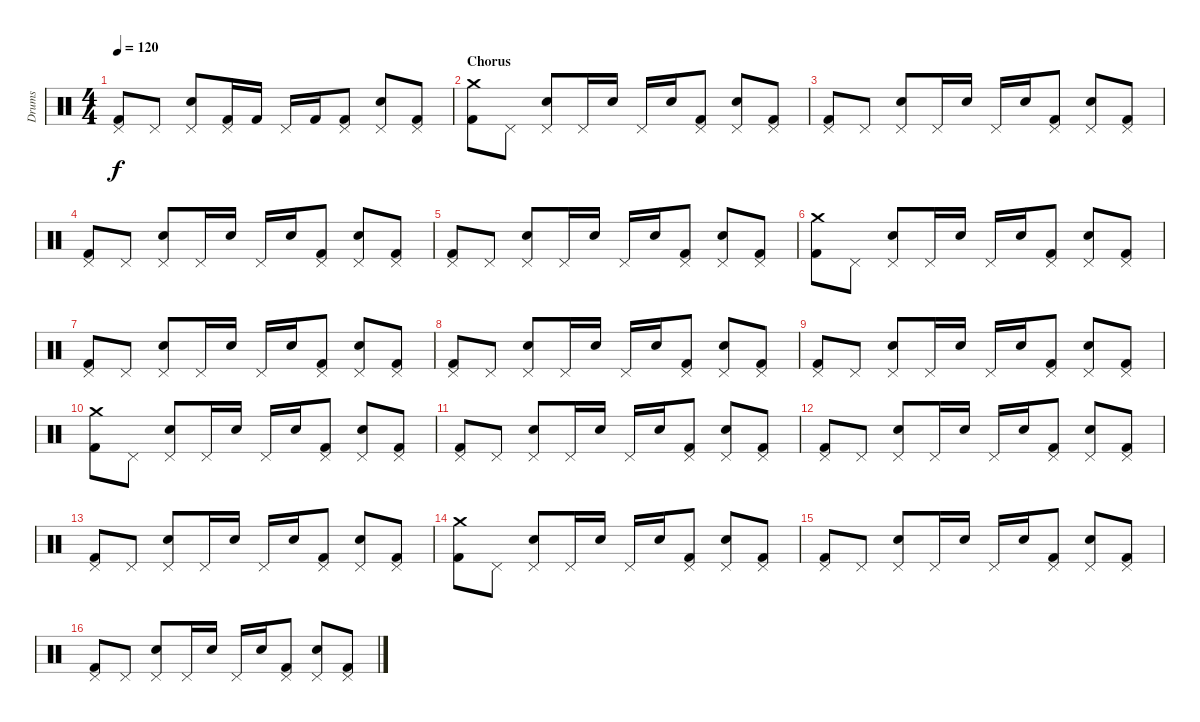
\track ("Drums" "Drums") {instrument percussion}
\staff {score}
\articulation defaults
\ts (4 4)
\tempo 120
\clef neutral
\ks c
("Pedal Hi-Hat (hit)" "Kick (hit) 2").8{dy f} "Pedal Hi-Hat (hit)".8 ("Pedal Hi-Hat (hit)" "Electric Snare (hit)").8 ("Pedal Hi-Hat (hit)" "Kick (hit) 2").16 "Kick (hit) 2".16 "Pedal Hi-Hat (hit)".16 "Kick (hit) 2".16 ("Pedal Hi-Hat (hit)" "Kick (hit) 2").8 ("Pedal Hi-Hat (hit)" "Electric Snare (hit)").8 ("Pedal Hi-Hat (hit)" "Kick (hit) 2").8 |
\section ("" "Chorus")
("Crash medium (hit)" "Kick (hit) 2").8 "Pedal Hi-Hat (hit)".8 ("Pedal Hi-Hat (hit)" "Electric Snare (hit)").8 "Pedal Hi-Hat (hit)".16 "Electric Snare (hit)".16 "Pedal Hi-Hat (hit)".16 "Electric Snare (hit)".16 ("Pedal Hi-Hat (hit)" "Kick (hit) 2").8 ("Pedal Hi-Hat (hit)" "Electric Snare (hit)").8 ("Pedal Hi-Hat (hit)" "Kick (hit) 2").8 |
("Pedal Hi-Hat (hit)" "Kick (hit) 2").8 "Pedal Hi-Hat (hit)".8 ("Pedal Hi-Hat (hit)" "Electric Snare (hit)").8 "Pedal Hi-Hat (hit)".16 "Electric Snare (hit)".16 "Pedal Hi-Hat (hit)".16 "Electric Snare (hit)".16 ("Pedal Hi-Hat (hit)" "Kick (hit) 2").8 ("Pedal Hi-Hat (hit)" "Electric Snare (hit)").8 ("Pedal Hi-Hat (hit)" "Kick (hit) 2").8 |
("Pedal Hi-Hat (hit)" "Kick (hit) 2").8 "Pedal Hi-Hat (hit)".8 ("Pedal Hi-Hat (hit)" "Electric Snare (hit)").8 "Pedal Hi-Hat (hit)".16 "Electric Snare (hit)".16 "Pedal Hi-Hat (hit)".16 "Electric Snare (hit)".16 ("Pedal Hi-Hat (hit)" "Kick (hit) 2").8 ("Pedal Hi-Hat (hit)" "Electric Snare (hit)").8 ("Pedal Hi-Hat (hit)" "Kick (hit) 2").8 |
("Pedal Hi-Hat (hit)" "Kick (hit) 2").8 "Pedal Hi-Hat (hit)".8 ("Pedal Hi-Hat (hit)" "Electric Snare (hit)").8 "Pedal Hi-Hat (hit)".16 "Electric Snare (hit)".16 "Pedal Hi-Hat (hit)".16 "Electric Snare (hit)".16 ("Pedal Hi-Hat (hit)" "Kick (hit) 2").8 ("Pedal Hi-Hat (hit)" "Electric Snare (hit)").8 ("Pedal Hi-Hat (hit)" "Kick (hit) 2").8 |
("Crash medium (hit)" "Kick (hit) 2").8 "Pedal Hi-Hat (hit)".8 ("Pedal Hi-Hat (hit)" "Electric Snare (hit)").8 "Pedal Hi-Hat (hit)".16 "Electric Snare (hit)".16 "Pedal Hi-Hat (hit)".16 "Electric Snare (hit)".16 ("Pedal Hi-Hat (hit)" "Kick (hit) 2").8 ("Pedal Hi-Hat (hit)" "Electric Snare (hit)").8 ("Pedal Hi-Hat (hit)" "Kick (hit) 2").8 |
("Pedal Hi-Hat (hit)" "Kick (hit) 2").8 "Pedal Hi-Hat (hit)".8 ("Pedal Hi-Hat (hit)" "Electric Snare (hit)").8 "Pedal Hi-Hat (hit)".16 "Electric Snare (hit)".16 "Pedal Hi-Hat (hit)".16 "Electric Snare (hit)".16 ("Pedal Hi-Hat (hit)" "Kick (hit) 2").8 ("Pedal Hi-Hat (hit)" "Electric Snare (hit)").8 ("Pedal Hi-Hat (hit)" "Kick (hit) 2").8 |
("Pedal Hi-Hat (hit)" "Kick (hit) 2").8 "Pedal Hi-Hat (hit)".8 ("Pedal Hi-Hat (hit)" "Electric Snare (hit)").8 "Pedal Hi-Hat (hit)".16 "Electric Snare (hit)".16 "Pedal Hi-Hat (hit)".16 "Electric Snare (hit)".16 ("Pedal Hi-Hat (hit)" "Kick (hit) 2").8 ("Pedal Hi-Hat (hit)" "Electric Snare (hit)").8 ("Pedal Hi-Hat (hit)" "Kick (hit) 2").8 |
("Pedal Hi-Hat (hit)" "Kick (hit) 2").8 "Pedal Hi-Hat (hit)".8 ("Pedal Hi-Hat (hit)" "Electric Snare (hit)").8 "Pedal Hi-Hat (hit)".16 "Electric Snare (hit)".16 "Pedal Hi-Hat (hit)".16 "Electric Snare (hit)".16 ("Pedal Hi-Hat (hit)" "Kick (hit) 2").8 ("Pedal Hi-Hat (hit)" "Electric Snare (hit)").8 ("Pedal Hi-Hat (hit)" "Kick (hit) 2").8 |
("Crash medium (hit)" "Kick (hit) 2").8 "Pedal Hi-Hat (hit)".8 ("Pedal Hi-Hat (hit)" "Electric Snare (hit)").8 "Pedal Hi-Hat (hit)".16 "Electric Snare (hit)".16 "Pedal Hi-Hat (hit)".16 "Electric Snare (hit)".16 ("Pedal Hi-Hat (hit)" "Kick (hit) 2").8 ("Pedal Hi-Hat (hit)" "Electric Snare (hit)").8 ("Pedal Hi-Hat (hit)" "Kick (hit) 2").8 |
("Pedal Hi-Hat (hit)" "Kick (hit) 2").8 "Pedal Hi-Hat (hit)".8 ("Pedal Hi-Hat (hit)" "Electric Snare (hit)").8 "Pedal Hi-Hat (hit)".16 "Electric Snare (hit)".16 "Pedal Hi-Hat (hit)".16 "Electric Snare (hit)".16 ("Pedal Hi-Hat (hit)" "Kick (hit) 2").8 ("Pedal Hi-Hat (hit)" "Electric Snare (hit)").8 ("Pedal Hi-Hat (hit)" "Kick (hit) 2").8 |
("Pedal Hi-Hat (hit)" "Kick (hit) 2").8 "Pedal Hi-Hat (hit)".8 ("Pedal Hi-Hat (hit)" "Electric Snare (hit)").8 "Pedal Hi-Hat (hit)".16 "Electric Snare (hit)".16 "Pedal Hi-Hat (hit)".16 "Electric Snare (hit)".16 ("Pedal Hi-Hat (hit)" "Kick (hit) 2").8 ("Pedal Hi-Hat (hit)" "Electric Snare (hit)").8 ("Pedal Hi-Hat (hit)" "Kick (hit) 2").8 |
("Pedal Hi-Hat (hit)" "Kick (hit) 2").8 "Pedal Hi-Hat (hit)".8 ("Pedal Hi-Hat (hit)" "Electric Snare (hit)").8 "Pedal Hi-Hat (hit)".16 "Electric Snare (hit)".16 "Pedal Hi-Hat (hit)".16 "Electric Snare (hit)".16 ("Pedal Hi-Hat (hit)" "Kick (hit) 2").8 ("Pedal Hi-Hat (hit)" "Electric Snare (hit)").8 ("Pedal Hi-Hat (hit)" "Kick (hit) 2").8 |
("Crash medium (hit)" "Kick (hit) 2").8 "Pedal Hi-Hat (hit)".8 ("Pedal Hi-Hat (hit)" "Electric Snare (hit)").8 "Pedal Hi-Hat (hit)".16 "Electric Snare (hit)".16 "Pedal Hi-Hat (hit)".16 "Electric Snare (hit)".16 ("Pedal Hi-Hat (hit)" "Kick (hit) 2").8 ("Pedal Hi-Hat (hit)" "Electric Snare (hit)").8 ("Pedal Hi-Hat (hit)" "Kick (hit) 2").8 |
("Pedal Hi-Hat (hit)" "Kick (hit) 2").8 "Pedal Hi-Hat (hit)".8 ("Pedal Hi-Hat (hit)" "Electric Snare (hit)").8 "Pedal Hi-Hat (hit)".16 "Electric Snare (hit)".16 "Pedal Hi-Hat (hit)".16 "Electric Snare (hit)".16 ("Pedal Hi-Hat (hit)" "Kick (hit) 2").8 ("Pedal Hi-Hat (hit)" "Electric Snare (hit)").8 ("Pedal Hi-Hat (hit)" "Kick (hit) 2").8 |
("Pedal Hi-Hat (hit)" "Kick (hit) 2").8 "Pedal Hi-Hat (hit)".8 ("Pedal Hi-Hat (hit)" "Electric Snare (hit)").8 "Pedal Hi-Hat (hit)".16 "Electric Snare (hit)".16 "Pedal Hi-Hat (hit)".16 "Electric Snare (hit)".16 ("Pedal Hi-Hat (hit)" "Kick (hit) 2").8 ("Pedal Hi-Hat (hit)" "Electric Snare (hit)").8 ("Pedal Hi-Hat (hit)" "Kick (hit) 2").8
